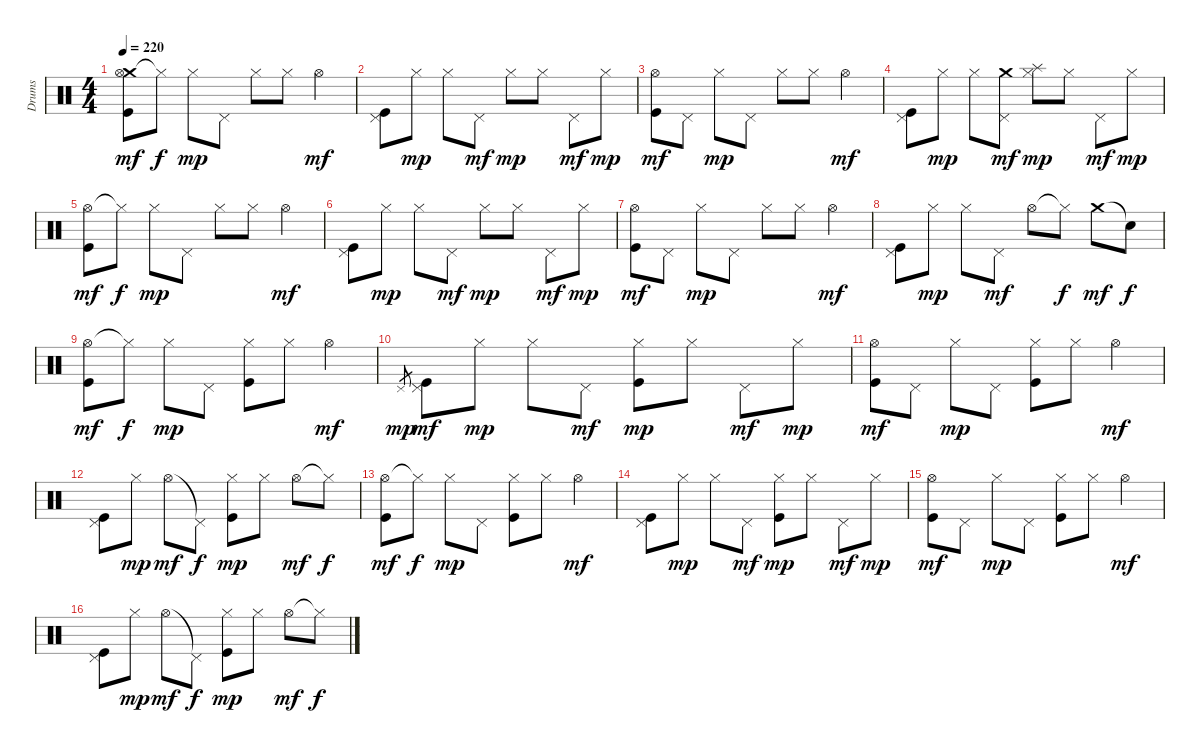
\track ("Drums" "Drums") {instrument percussion}
\staff {score}
\articulation defaults
\ts (4 4)
\tempo 220
\clef neutral
\ks c
("Crash medium (hit)" "Hi-Hat (open)" "Kick (hit)").8{dy mf} "Hi-Hat (closed)"{t}.8{dy f} "Hi-Hat (closed)".8{dy mp} "Pedal Hi-Hat (hit)".8 "Hi-Hat (closed)".8 "Hi-Hat (closed)".8 "Hi-Hat (open)".4{dy mf} |
("Pedal Hi-Hat (hit)" "Kick (hit)").8 "Hi-Hat (closed)".8{dy mp} "Hi-Hat (closed)".8 "Pedal Hi-Hat (hit)".8{dy mf} "Hi-Hat (closed)".8{dy mp} "Hi-Hat (closed)".8 "Pedal Hi-Hat (hit)".8{dy mf} "Hi-Hat (closed)".8{dy mp} |
("Hi-Hat (open)" "Kick (hit)").8{dy mf} "Pedal Hi-Hat (hit)".8 "Hi-Hat (closed)".8{dy mp} "Pedal Hi-Hat (hit)".8 "Hi-Hat (closed)".8 "Hi-Hat (closed)".8 "Hi-Hat (open)".4{dy mf} |
("Pedal Hi-Hat (hit)" "Kick (hit)").8 "Hi-Hat (closed)".8{dy mp} "Hi-Hat (closed)".8 ("Crash medium (hit)" "Pedal Hi-Hat (hit)").8{dy mf} ("Splash (hit)" "Hi-Hat (closed)").8{dy mp} "Hi-Hat (closed)".8 "Pedal Hi-Hat (hit)".8{dy mf} "Hi-Hat (closed)".8{dy mp} |
("Hi-Hat (open)" "Kick (hit)").8{dy mf} "Hi-Hat (closed)"{t}.8{dy f} "Hi-Hat (closed)".8{dy mp} "Pedal Hi-Hat (hit)".8 "Hi-Hat (closed)".8 "Hi-Hat (closed)".8 "Hi-Hat (open)".4{dy mf} |
("Pedal Hi-Hat (hit)" "Kick (hit)").8 "Hi-Hat (closed)".8{dy mp} "Hi-Hat (closed)".8 "Pedal Hi-Hat (hit)".8{dy mf} "Hi-Hat (closed)".8{dy mp} "Hi-Hat (closed)".8 "Pedal Hi-Hat (hit)".8{dy mf} "Hi-Hat (closed)".8{dy mp} |
("Hi-Hat (open)" "Kick (hit)").8{dy mf} "Pedal Hi-Hat (hit)".8 "Hi-Hat (closed)".8{dy mp} "Pedal Hi-Hat (hit)".8 "Hi-Hat (closed)".8 "Hi-Hat (closed)".8 "Hi-Hat (open)".4{dy mf} |
("Pedal Hi-Hat (hit)" "Kick (hit)").8 "Hi-Hat (closed)".8{dy mp} "Hi-Hat (closed)".8 "Pedal Hi-Hat (hit)".8{dy mf} "Hi-Hat (open)".8 "Hi-Hat (closed)"{t}.8{dy f} "Crash medium (hit)".8{dy mf} "Snare (hit)"{t}.8{dy f} |
("Hi-Hat (open)" "Kick (hit)").8{dy mf} "Hi-Hat (closed)"{t}.8{dy f} "Hi-Hat (closed)".8{dy mp} "Pedal Hi-Hat (hit)".8 ("Hi-Hat (closed)" "Kick (hit)").8 "Hi-Hat (closed)".8 "Hi-Hat (open)".4{dy mf} |
"Pedal Hi-Hat (hit)".8{gr dy mp} ("Pedal Hi-Hat (hit)" "Kick (hit)").8{dy mf} "Hi-Hat (closed)".8{dy mp} "Hi-Hat (closed)".8 "Pedal Hi-Hat (hit)".8{dy mf} ("Hi-Hat (closed)" "Kick (hit)").8{dy mp} "Hi-Hat (closed)".8 "Pedal Hi-Hat (hit)".8{dy mf} "Hi-Hat (closed)".8{dy mp} |
("Hi-Hat (open)" "Kick (hit)").8{dy mf} "Pedal Hi-Hat (hit)".8 "Hi-Hat (closed)".8{dy mp} "Pedal Hi-Hat (hit)".8 ("Hi-Hat (closed)" "Kick (hit)").8 "Hi-Hat (closed)".8 "Hi-Hat (open)".4{dy mf} |
("Pedal Hi-Hat (hit)" "Kick (hit)").8 "Hi-Hat (closed)".8{dy mp} "Hi-Hat (open)".8{dy mf} "Pedal Hi-Hat (hit)"{t}.8{dy f} ("Hi-Hat (closed)" "Kick (hit)").8{dy mp} "Hi-Hat (closed)".8 "Hi-Hat (open)".8{dy mf} "Hi-Hat (closed)"{t}.8{dy f} |
("Hi-Hat (open)" "Kick (hit)").8{dy mf} "Hi-Hat (closed)"{t}.8{dy f} "Hi-Hat (closed)".8{dy mp} "Pedal Hi-Hat (hit)".8 ("Hi-Hat (closed)" "Kick (hit)").8 "Hi-Hat (closed)".8 "Hi-Hat (open)".4{dy mf} |
("Pedal Hi-Hat (hit)" "Kick (hit)").8 "Hi-Hat (closed)".8{dy mp} "Hi-Hat (closed)".8 "Pedal Hi-Hat (hit)".8{dy mf} ("Hi-Hat (closed)" "Kick (hit)").8{dy mp} "Hi-Hat (closed)".8 "Pedal Hi-Hat (hit)".8{dy mf} "Hi-Hat (closed)".8{dy mp} |
("Hi-Hat (open)" "Kick (hit)").8{dy mf} "Pedal Hi-Hat (hit)".8 "Hi-Hat (closed)".8{dy mp} "Pedal Hi-Hat (hit)".8 ("Hi-Hat (closed)" "Kick (hit)").8 "Hi-Hat (closed)".8 "Hi-Hat (open)".4{dy mf} |
("Pedal Hi-Hat (hit)" "Kick (hit)").8 "Hi-Hat (closed)".8{dy mp} "Hi-Hat (open)".8{dy mf} "Pedal Hi-Hat (hit)"{t}.8{dy f} ("Hi-Hat (closed)" "Kick (hit)").8{dy mp} "Hi-Hat (closed)".8 "Hi-Hat (open)".8{dy mf} "Hi-Hat (closed)"{t}.8{dy f}
